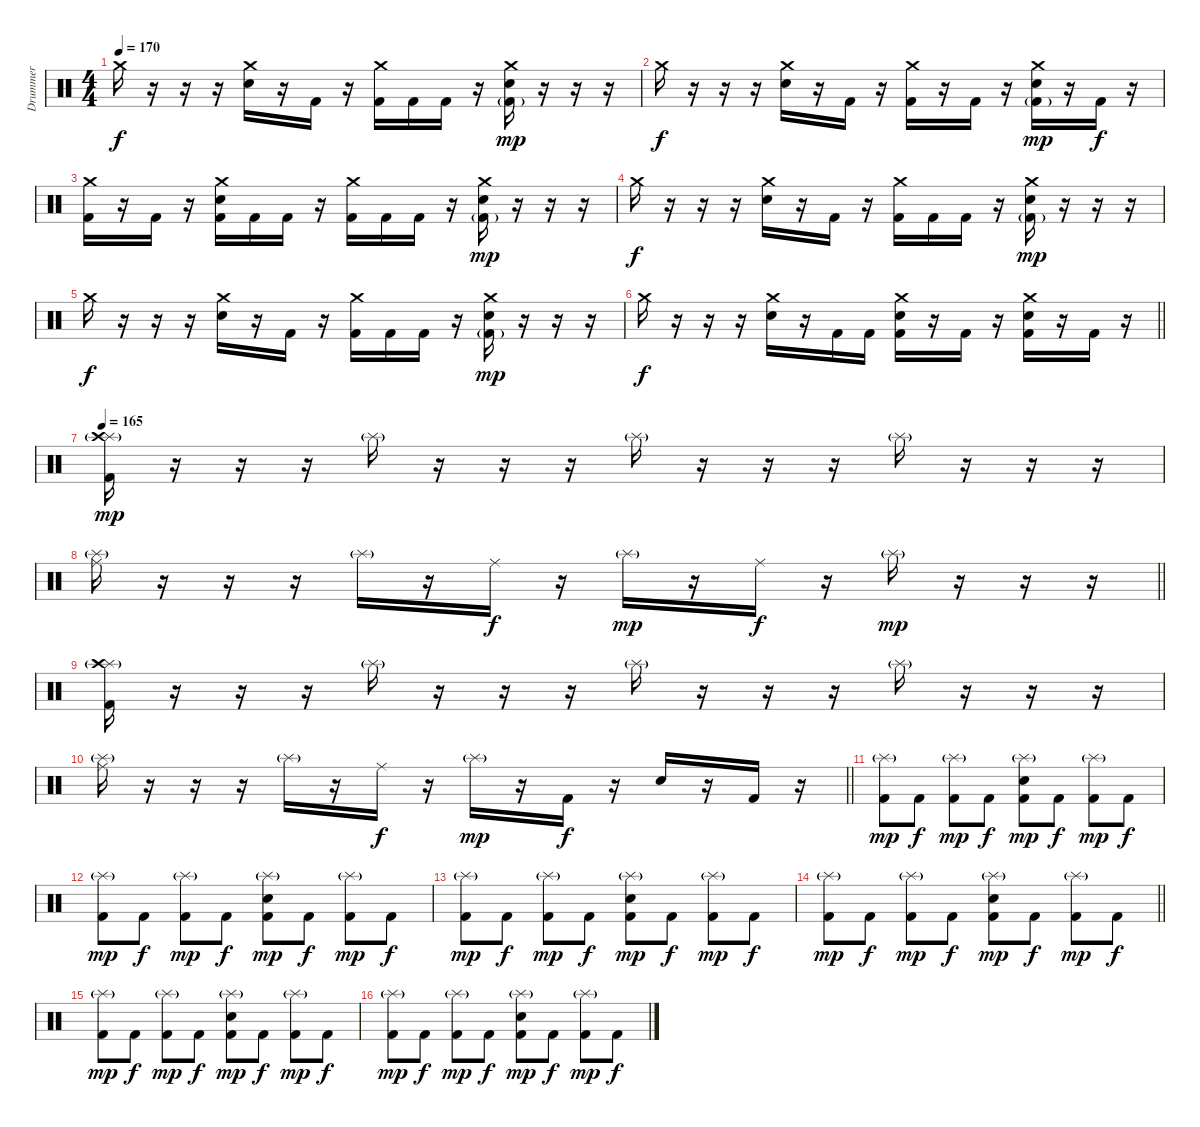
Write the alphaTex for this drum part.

\track ("Drummer" "Drummer") {instrument percussion}
\staff {score}
\articulation defaults
\ts (4 4)
\tempo 170
\clef neutral
\ks c "Crash medium (hit)".16{dy f}
r.16 r.16 r.16 ("Crash medium (hit)" "Snare (hit) 2").16 r.16 "Kick (hit) 2".16 r.16 ("Crash medium (hit)" "Kick (hit) 2").16 "Kick (hit) 2".16 "Kick (hit) 2".16 r.16 ("Crash medium (hit)" "Snare (hit) 2" "Kick (hit) 2"{g}).16{dy mp} r.16 r.16 r.16 |
"Crash medium (hit)".16{dy f} r.16 r.16 r.16 ("Crash medium (hit)" "Snare (hit) 2").16 r.16 "Kick (hit) 2".16 r.16 ("Crash medium (hit)" "Kick (hit) 2").16 r.16 "Kick (hit) 2".16 r.16 ("Crash medium (hit)" "Snare (hit) 2" "Kick (hit) 2"{g}).16{dy mp} r.16 "Kick (hit) 2".16{dy f} r.16 |
("Crash medium (hit)" "Kick (hit) 2").16 r.16 "Kick (hit) 2".16 r.16 ("Crash medium (hit)" "Snare (hit) 2" "Kick (hit) 2").16 "Kick (hit) 2".16 "Kick (hit) 2".16 r.16 ("Crash medium (hit)" "Kick (hit) 2").16 "Kick (hit) 2".16 "Kick (hit) 2".16 r.16 ("Crash medium (hit)" "Snare (hit) 2" "Kick (hit) 2"{g}).16{dy mp} r.16 r.16 r.16 |
"Crash medium (hit)".16{dy f} r.16 r.16 r.16 ("Crash medium (hit)" "Snare (hit) 2").16 r.16 "Kick (hit) 2".16 r.16 ("Crash medium (hit)" "Kick (hit) 2").16 "Kick (hit) 2".16 "Kick (hit) 2".16 r.16 ("Crash medium (hit)" "Snare (hit) 2" "Kick (hit) 2"{g}).16{dy mp} r.16 r.16 r.16 |
"Crash medium (hit)".16{dy f} r.16 r.16 r.16 ("Crash medium (hit)" "Snare (hit) 2").16 r.16 "Kick (hit) 2".16 r.16 ("Crash medium (hit)" "Kick (hit) 2").16 "Kick (hit) 2".16 "Kick (hit) 2".16 r.16 ("Crash medium (hit)" "Snare (hit) 2" "Kick (hit) 2"{g}).16{dy mp} r.16 r.16 r.16 |
\barLineRight lightlight "Crash medium (hit)".16{dy f}
r.16 r.16 r.16 ("Crash medium (hit)" "Snare (hit) 2").16 r.16 "Kick (hit) 2".16 "Kick (hit) 2".16 ("Crash medium (hit)" "Snare (hit) 2" "Kick (hit) 2").16 r.16 "Kick (hit) 2".16 r.16 ("Crash medium (hit)" "Snare (hit) 2" "Kick (hit) 2").16 r.16 "Kick (hit) 2".16 r.16 |
\tempo 165
("Splash (hit)"{g} "Crash high (hit)" "Kick (hit) 2").16{dy mp} r.16 r.16 r.16 "Splash (hit)"{g}.16 r.16 r.16 r.16 "Splash (hit)"{g}.16 r.16 r.16 r.16 "Splash (hit)"{g}.16 r.16 r.16 r.16 |
\barLineRight lightlight
("Splash (hit)"{g} "Ride (middle)").16 r.16 r.16 r.16 "Splash (hit)"{g}.16 r.16 "Ride (middle)".16{dy f} r.16 "Splash (hit)"{g}.16{dy mp} r.16 "Ride (middle)".16{dy f} r.16 "Splash (hit)"{g}.16{dy mp} r.16 r.16 r.16 |
("Splash (hit)"{g} "Crash high (hit)" "Kick (hit) 2").16 r.16 r.16 r.16 "Splash (hit)"{g}.16 r.16 r.16 r.16 "Splash (hit)"{g}.16 r.16 r.16 r.16 "Splash (hit)"{g}.16 r.16 r.16 r.16 |
\barLineRight lightlight
("Splash (hit)"{g} "Ride (middle)").16 r.16 r.16 r.16 "Splash (hit)"{g}.16 r.16 "Ride (middle)".16{dy f} r.16 "Splash (hit)"{g}.16{dy mp} r.16 "Kick (hit) 2".16{dy f} r.16 "Snare (hit) 2".16 r.16 "Kick (hit) 2".16 r.16 |
("Splash (hit)"{g} "Kick (hit) 2").8{dy mp} "Kick (hit) 2".8{dy f} ("Splash (hit)"{g} "Kick (hit) 2").8{dy mp} "Kick (hit) 2".8{dy f} ("Splash (hit)"{g} "Snare (hit) 2" "Kick (hit) 2").8{dy mp} "Kick (hit) 2".8{dy f} ("Splash (hit)"{g} "Kick (hit) 2").8{dy mp} "Kick (hit) 2".8{dy f} |
("Splash (hit)"{g} "Kick (hit) 2").8{dy mp} "Kick (hit) 2".8{dy f} ("Splash (hit)"{g} "Kick (hit) 2").8{dy mp} "Kick (hit) 2".8{dy f} ("Splash (hit)"{g} "Snare (hit) 2" "Kick (hit) 2").8{dy mp} "Kick (hit) 2".8{dy f} ("Splash (hit)"{g} "Kick (hit) 2").8{dy mp} "Kick (hit) 2".8{dy f} |
("Splash (hit)"{g} "Kick (hit) 2").8{dy mp} "Kick (hit) 2".8{dy f} ("Splash (hit)"{g} "Kick (hit) 2").8{dy mp} "Kick (hit) 2".8{dy f} ("Splash (hit)"{g} "Snare (hit) 2" "Kick (hit) 2").8{dy mp} "Kick (hit) 2".8{dy f} ("Splash (hit)"{g} "Kick (hit) 2").8{dy mp} "Kick (hit) 2".8{dy f} |
\barLineRight lightlight
("Splash (hit)"{g} "Kick (hit) 2").8{dy mp} "Kick (hit) 2".8{dy f} ("Splash (hit)"{g} "Kick (hit) 2").8{dy mp} "Kick (hit) 2".8{dy f} ("Splash (hit)"{g} "Snare (hit) 2" "Kick (hit) 2").8{dy mp} "Kick (hit) 2".8{dy f} ("Splash (hit)"{g} "Kick (hit) 2").8{dy mp} "Kick (hit) 2".8{dy f} |
("Splash (hit)"{g} "Kick (hit) 2").8{dy mp} "Kick (hit) 2".8{dy f} ("Splash (hit)"{g} "Kick (hit) 2").8{dy mp} "Kick (hit) 2".8{dy f} ("Splash (hit)"{g} "Snare (hit) 2" "Kick (hit) 2").8{dy mp} "Kick (hit) 2".8{dy f} ("Splash (hit)"{g} "Kick (hit) 2").8{dy mp} "Kick (hit) 2".8{dy f} |
("Splash (hit)"{g} "Kick (hit) 2").8{dy mp} "Kick (hit) 2".8{dy f} ("Splash (hit)"{g} "Kick (hit) 2").8{dy mp} "Kick (hit) 2".8{dy f} ("Splash (hit)"{g} "Snare (hit) 2" "Kick (hit) 2").8{dy mp} "Kick (hit) 2".8{dy f} ("Splash (hit)"{g} "Kick (hit) 2").8{dy mp} "Kick (hit) 2".8{dy f}
